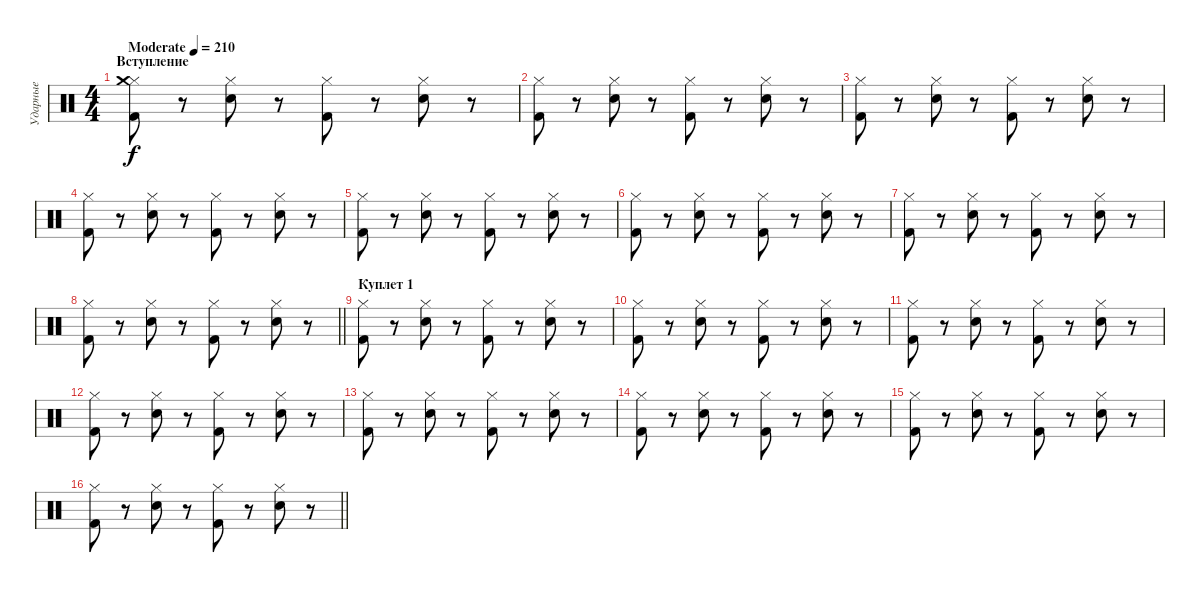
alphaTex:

\track ("Ударные" "Ударные") {instrument percussion}
\staff {score}
\articulation defaults
\ts (4 4)
\section ("" "Вступление")
\tempo (210 "Moderate")
\clef neutral
\ks c
("Kick (hit) 2" "Hi-Hat (closed)" "Crash medium (hit)").8{dy f} r.8 ("Snare (hit) 2" "Hi-Hat (closed)").8 r.8 ("Kick (hit) 2" "Hi-Hat (closed)").8 r.8 ("Snare (hit) 2" "Hi-Hat (closed)").8 r.8 |
("Kick (hit) 2" "Hi-Hat (closed)").8 r.8 ("Snare (hit) 2" "Hi-Hat (closed)").8 r.8 ("Kick (hit) 2" "Hi-Hat (closed)").8 r.8 ("Snare (hit) 2" "Hi-Hat (closed)").8 r.8 |
("Kick (hit) 2" "Hi-Hat (closed)").8 r.8 ("Snare (hit) 2" "Hi-Hat (closed)").8 r.8 ("Kick (hit) 2" "Hi-Hat (closed)").8 r.8 ("Snare (hit) 2" "Hi-Hat (closed)").8 r.8 |
("Kick (hit) 2" "Hi-Hat (closed)").8 r.8 ("Snare (hit) 2" "Hi-Hat (closed)").8 r.8 ("Kick (hit) 2" "Hi-Hat (closed)").8 r.8 ("Snare (hit) 2" "Hi-Hat (closed)").8 r.8 |
("Kick (hit) 2" "Hi-Hat (closed)").8 r.8 ("Snare (hit) 2" "Hi-Hat (closed)").8 r.8 ("Kick (hit) 2" "Hi-Hat (closed)").8 r.8 ("Snare (hit) 2" "Hi-Hat (closed)").8 r.8 |
("Kick (hit) 2" "Hi-Hat (closed)").8 r.8 ("Snare (hit) 2" "Hi-Hat (closed)").8 r.8 ("Kick (hit) 2" "Hi-Hat (closed)").8 r.8 ("Snare (hit) 2" "Hi-Hat (closed)").8 r.8 |
("Kick (hit) 2" "Hi-Hat (closed)").8 r.8 ("Snare (hit) 2" "Hi-Hat (closed)").8 r.8 ("Kick (hit) 2" "Hi-Hat (closed)").8 r.8 ("Snare (hit) 2" "Hi-Hat (closed)").8 r.8 |
\barLineRight lightlight
("Kick (hit) 2" "Hi-Hat (closed)").8 r.8 ("Snare (hit) 2" "Hi-Hat (closed)").8 r.8 ("Kick (hit) 2" "Hi-Hat (closed)").8 r.8 ("Snare (hit) 2" "Hi-Hat (closed)").8 r.8 |
\section ("" "Куплет 1")
("Kick (hit) 2" "Hi-Hat (closed)").8 r.8 ("Snare (hit) 2" "Hi-Hat (closed)").8 r.8 ("Kick (hit) 2" "Hi-Hat (closed)").8 r.8 ("Snare (hit) 2" "Hi-Hat (closed)").8 r.8 |
("Kick (hit) 2" "Hi-Hat (closed)").8 r.8 ("Snare (hit) 2" "Hi-Hat (closed)").8 r.8 ("Kick (hit) 2" "Hi-Hat (closed)").8 r.8 ("Snare (hit) 2" "Hi-Hat (closed)").8 r.8 |
("Kick (hit) 2" "Hi-Hat (closed)").8 r.8 ("Snare (hit) 2" "Hi-Hat (closed)").8 r.8 ("Kick (hit) 2" "Hi-Hat (closed)").8 r.8 ("Snare (hit) 2" "Hi-Hat (closed)").8 r.8 |
("Kick (hit) 2" "Hi-Hat (closed)").8 r.8 ("Snare (hit) 2" "Hi-Hat (closed)").8 r.8 ("Kick (hit) 2" "Hi-Hat (closed)").8 r.8 ("Snare (hit) 2" "Hi-Hat (closed)").8 r.8 |
("Kick (hit) 2" "Hi-Hat (closed)").8 r.8 ("Snare (hit) 2" "Hi-Hat (closed)").8 r.8 ("Kick (hit) 2" "Hi-Hat (closed)").8 r.8 ("Snare (hit) 2" "Hi-Hat (closed)").8 r.8 |
("Kick (hit) 2" "Hi-Hat (closed)").8 r.8 ("Snare (hit) 2" "Hi-Hat (closed)").8 r.8 ("Kick (hit) 2" "Hi-Hat (closed)").8 r.8 ("Snare (hit) 2" "Hi-Hat (closed)").8 r.8 |
("Kick (hit) 2" "Hi-Hat (closed)").8 r.8 ("Snare (hit) 2" "Hi-Hat (closed)").8 r.8 ("Kick (hit) 2" "Hi-Hat (closed)").8 r.8 ("Snare (hit) 2" "Hi-Hat (closed)").8 r.8 |
\barLineRight lightlight
("Kick (hit) 2" "Hi-Hat (closed)").8 r.8 ("Snare (hit) 2" "Hi-Hat (closed)").8 r.8 ("Kick (hit) 2" "Hi-Hat (closed)").8 r.8 ("Snare (hit) 2" "Hi-Hat (closed)").8 r.8
